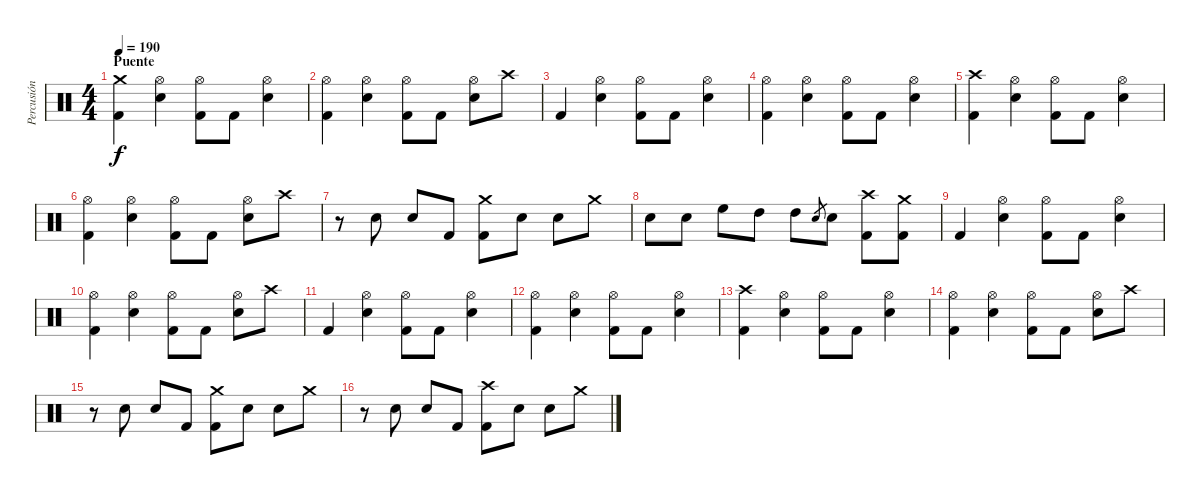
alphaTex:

\track ("Percusión" "Percusión") {instrument percussion}
\staff {score}
\articulation defaults
\ts (4 4)
\section ("" "Puente")
\tempo 190
\clef neutral
\ks c
("Crash medium (hit)"{t} "Kick (hit) 2").4{dy f} ("Hi-Hat (open)" "Snare (hit) 2").4 ("Hi-Hat (open)" "Kick (hit) 2").8 "Kick (hit) 2".8 ("Hi-Hat (open)" "Snare (hit) 2").4 |
("Hi-Hat (open)" "Kick (hit) 2").4 ("Hi-Hat (open)" "Snare (hit) 2").4 ("Hi-Hat (open)" "Kick (hit) 2").8 "Kick (hit) 2".8 ("Hi-Hat (open)" "Snare (hit) 2").8 "Crash high (hit)".8 |
"Kick (hit) 2".4 ("Hi-Hat (open)" "Snare (hit) 2").4 ("Hi-Hat (open)" "Kick (hit) 2").8 "Kick (hit) 2".8 ("Hi-Hat (open)" "Snare (hit) 2").4 |
("Hi-Hat (open)" "Kick (hit) 2").4 ("Hi-Hat (open)" "Snare (hit) 2").4 ("Hi-Hat (open)" "Kick (hit) 2").8 "Kick (hit) 2".8 ("Hi-Hat (open)" "Snare (hit) 2").4 |
("Crash high (hit)" "Kick (hit) 2").4 ("Hi-Hat (open)" "Snare (hit) 2").4 ("Hi-Hat (open)" "Kick (hit) 2").8 "Kick (hit) 2".8 ("Hi-Hat (open)" "Snare (hit) 2").4 |
("Hi-Hat (open)" "Kick (hit) 2").4 ("Hi-Hat (open)" "Snare (hit) 2").4 ("Hi-Hat (open)" "Kick (hit) 2").8 "Kick (hit) 2".8 ("Hi-Hat (open)" "Snare (hit) 2").8 "Crash high (hit)".8 |
r.8 "Snare (hit) 2".8 "Snare (hit) 2".8 "Kick (hit) 2".8 ("Crash medium (hit)" "Kick (hit) 2").8 "Snare (hit) 2".8 "Snare (hit) 2".8 "Crash medium (hit)".8 |
"Snare (hit) 2".8 "Snare (hit) 2".8 "High Floor Tom (hit)".8 "High Tom (hit)".8 "High Tom (hit)".8 "Snare (hit) 2".8{gr} "Snare (hit) 2".8 ("Crash high (hit)" "Kick (hit) 2").8 ("Crash medium (hit)" "Kick (hit) 2").8 |
"Kick (hit) 2".4 ("Hi-Hat (open)" "Snare (hit) 2").4 ("Hi-Hat (open)" "Kick (hit) 2").8 "Kick (hit) 2".8 ("Hi-Hat (open)" "Snare (hit) 2").4 |
("Hi-Hat (open)" "Kick (hit) 2").4 ("Hi-Hat (open)" "Snare (hit) 2").4 ("Hi-Hat (open)" "Kick (hit) 2").8 "Kick (hit) 2".8 ("Hi-Hat (open)" "Snare (hit) 2").8 "Crash high (hit)".8 |
"Kick (hit) 2".4 ("Hi-Hat (open)" "Snare (hit) 2").4 ("Hi-Hat (open)" "Kick (hit) 2").8 "Kick (hit) 2".8 ("Hi-Hat (open)" "Snare (hit) 2").4 |
("Hi-Hat (open)" "Kick (hit) 2").4 ("Hi-Hat (open)" "Snare (hit) 2").4 ("Hi-Hat (open)" "Kick (hit) 2").8 "Kick (hit) 2".8 ("Hi-Hat (open)" "Snare (hit) 2").4 |
("Crash high (hit)" "Kick (hit) 2").4 ("Hi-Hat (open)" "Snare (hit) 2").4 ("Hi-Hat (open)" "Kick (hit) 2").8 "Kick (hit) 2".8 ("Hi-Hat (open)" "Snare (hit) 2").4 |
("Hi-Hat (open)" "Kick (hit) 2").4 ("Hi-Hat (open)" "Snare (hit) 2").4 ("Hi-Hat (open)" "Kick (hit) 2").8 "Kick (hit) 2".8 ("Hi-Hat (open)" "Snare (hit) 2").8 "Crash high (hit)".8 |
r.8 "Snare (hit) 2".8 "Snare (hit) 2".8 "Kick (hit) 2".8 ("Crash medium (hit)" "Kick (hit) 2").8 "Snare (hit) 2".8 "Snare (hit) 2".8 "Crash medium (hit)".8 |
r.8 "Snare (hit) 2".8 "Snare (hit) 2".8 "Kick (hit) 2".8 ("Crash high (hit)" "Kick (hit) 2").8 "Snare (hit) 2".8 "Snare (hit) 2".8 "Crash medium (hit)".8
